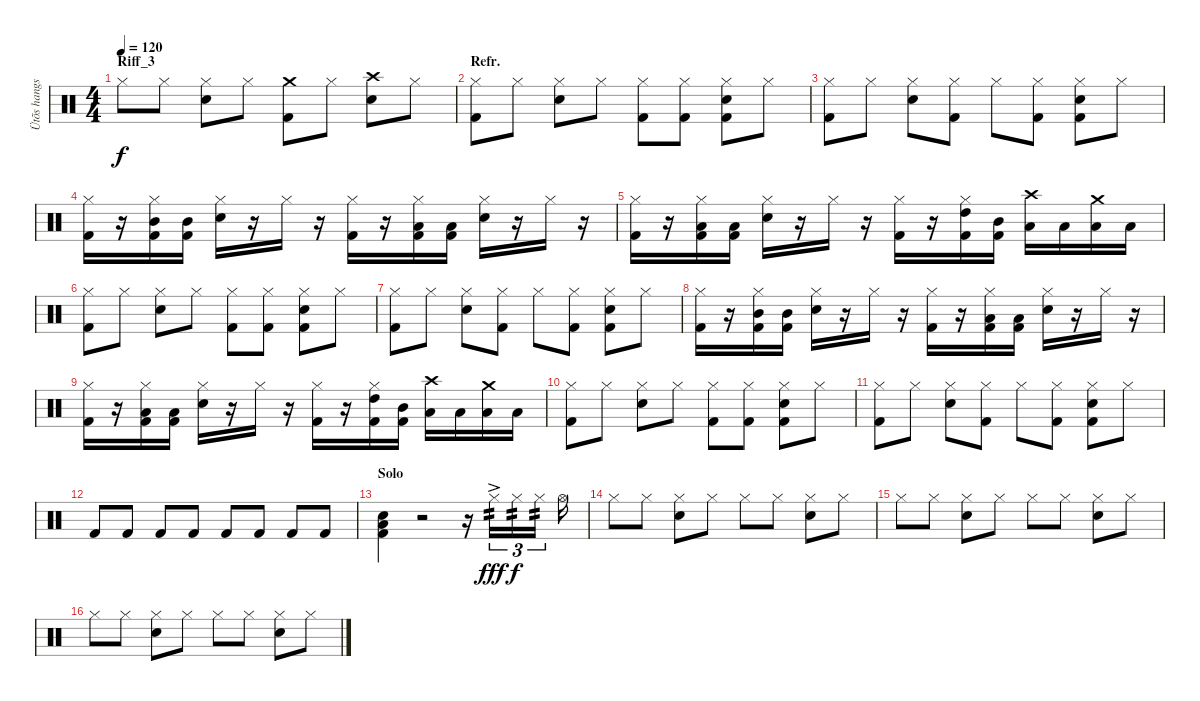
\track ("Ütõs hangszer" "Ütõs hangs") {instrument percussion}
\staff {score}
\articulation defaults
\ts (4 4)
\section ("" "Riff_3")
\tempo 120
\clef neutral
\ks c "Hi-Hat (closed)".8{dy f} "Hi-Hat (closed)".8
("Hi-Hat (closed)" "Snare (hit) 2").8 "Hi-Hat (closed)".8 ("Crash medium (hit)" "Kick (hit) 2").8 "Hi-Hat (closed)".8 ("Crash high (hit)" "Snare (hit) 2").8 "Hi-Hat (closed)".8 |
\section ("" "Refr.")
("Hi-Hat (closed)" "Kick (hit) 2").8 "Hi-Hat (closed)".8 ("Hi-Hat (closed)" "Snare (hit) 2").8 "Hi-Hat (closed)".8 ("Hi-Hat (closed)" "Kick (hit) 2").8 ("Hi-Hat (closed)" "Kick (hit) 2").8 ("Hi-Hat (closed)" "Snare (hit) 2" "Kick (hit) 2").8 "Hi-Hat (closed)".8 |
("Hi-Hat (closed)" "Kick (hit) 2").8 "Hi-Hat (closed)".8 ("Hi-Hat (closed)" "Snare (hit) 2").8 ("Hi-Hat (closed)" "Kick (hit) 2").8 "Hi-Hat (closed)".8 ("Hi-Hat (closed)" "Kick (hit) 2").8 ("Hi-Hat (closed)" "Snare (hit) 2" "Kick (hit) 2").8 "Hi-Hat (closed)".8 |
("Hi-Hat (closed)" "Kick (hit) 2").16 r.16 ("Hi-Hat (closed)" "Mid Tom (hit)" "Kick (hit) 2").16 ("Mid Tom (hit)" "Kick (hit) 2").16 ("Hi-Hat (closed)" "Snare (hit) 2").16 r.16 "Hi-Hat (closed)".16 r.16 ("Hi-Hat (closed)" "Kick (hit) 2").16 r.16 ("Hi-Hat (closed)" "Low Tom (hit)" "Kick (hit) 2").16 ("Low Tom (hit)" "Kick (hit) 2").16 ("Hi-Hat (closed)" "Snare (hit) 2").16 r.16 "Hi-Hat (closed)".16 r.16 |
("Hi-Hat (closed)" "Kick (hit) 2").16 r.16 ("Hi-Hat (closed)" "Low Floor Tom (hit)" "Kick (hit) 2").16 ("Low Floor Tom (hit)" "Kick (hit) 2").16 ("Hi-Hat (closed)" "Snare (hit) 2").16 r.16 "Hi-Hat (closed)".16 r.16 ("Hi-Hat (closed)" "Kick (hit) 2").16 r.16 ("Hi-Hat (closed)" "High Tom (hit)" "Kick (hit) 2").16 ("Mid Tom (hit)" "Kick (hit) 2").16 ("Crash high (hit)" "Low Tom (hit)").16 "Low Floor Tom (hit)".16 ("Crash medium (hit)" "Low Tom (hit)").16 "Low Tom (hit)".16 |
("Hi-Hat (closed)" "Kick (hit) 2").8 "Hi-Hat (closed)".8 ("Hi-Hat (closed)" "Snare (hit) 2").8 "Hi-Hat (closed)".8 ("Hi-Hat (closed)" "Kick (hit) 2").8 ("Hi-Hat (closed)" "Kick (hit) 2").8 ("Hi-Hat (closed)" "Snare (hit) 2" "Kick (hit) 2").8 "Hi-Hat (closed)".8 |
("Hi-Hat (closed)" "Kick (hit) 2").8 "Hi-Hat (closed)".8 ("Hi-Hat (closed)" "Snare (hit) 2").8 ("Hi-Hat (closed)" "Kick (hit) 2").8 "Hi-Hat (closed)".8 ("Hi-Hat (closed)" "Kick (hit) 2").8 ("Hi-Hat (closed)" "Snare (hit) 2" "Kick (hit) 2").8 "Hi-Hat (closed)".8 |
("Hi-Hat (closed)" "Kick (hit) 2").16 r.16 ("Hi-Hat (closed)" "Mid Tom (hit)" "Kick (hit) 2").16 ("Mid Tom (hit)" "Kick (hit) 2").16 ("Hi-Hat (closed)" "Snare (hit) 2").16 r.16 "Hi-Hat (closed)".16 r.16 ("Hi-Hat (closed)" "Kick (hit) 2").16 r.16 ("Hi-Hat (closed)" "Low Tom (hit)" "Kick (hit) 2").16 ("Low Tom (hit)" "Kick (hit) 2").16 ("Hi-Hat (closed)" "Snare (hit) 2").16 r.16 "Hi-Hat (closed)".16 r.16 |
("Hi-Hat (closed)" "Kick (hit) 2").16 r.16 ("Hi-Hat (closed)" "Low Floor Tom (hit)" "Kick (hit) 2").16 ("Low Floor Tom (hit)" "Kick (hit) 2").16 ("Hi-Hat (closed)" "Snare (hit) 2").16 r.16 "Hi-Hat (closed)".16 r.16 ("Hi-Hat (closed)" "Kick (hit) 2").16 r.16 ("Hi-Hat (closed)" "High Tom (hit)" "Kick (hit) 2").16 ("Mid Tom (hit)" "Kick (hit) 2").16 ("Crash high (hit)" "Low Tom (hit)").16 "Low Floor Tom (hit)".16 ("Crash medium (hit)" "Low Tom (hit)").16 "Low Tom (hit)".16 |
("Hi-Hat (closed)" "Kick (hit) 2").8 "Hi-Hat (closed)".8 ("Hi-Hat (closed)" "Snare (hit) 2").8 "Hi-Hat (closed)".8 ("Hi-Hat (closed)" "Kick (hit) 2").8 ("Hi-Hat (closed)" "Kick (hit) 2").8 ("Hi-Hat (closed)" "Snare (hit) 2" "Kick (hit) 2").8 "Hi-Hat (closed)".8 |
("Hi-Hat (closed)" "Kick (hit) 2").8 "Hi-Hat (closed)".8 ("Hi-Hat (closed)" "Snare (hit) 2").8 ("Hi-Hat (closed)" "Kick (hit) 2").8 "Hi-Hat (closed)".8 ("Hi-Hat (closed)" "Kick (hit) 2").8 ("Hi-Hat (closed)" "Snare (hit) 2" "Kick (hit) 2").8 "Hi-Hat (closed)".8 |
"Kick (hit) 2".8 "Kick (hit) 2".8 "Kick (hit) 2".8 "Kick (hit) 2".8 "Kick (hit) 2".8 "Kick (hit) 2".8 "Kick (hit) 2".8 "Kick (hit) 2".8 |
\section ("" "Solo")
("Low Floor Tom (hit)" "Snare (hit) 2" "Kick (hit) 2").4 r.2 r.16 "Hi-Hat (closed)"{ac}.16{tu (3 2) tp 2 dy fff} "Hi-Hat (closed)".16{tu (3 2) tp 2 dy f} "Hi-Hat (closed)".16{tu (3 2) tp 2} "Hi-Hat (open)".16 |
"Hi-Hat (closed)".8 "Hi-Hat (closed)".8 ("Hi-Hat (closed)" "Snare (hit) 2").8 "Hi-Hat (closed)".8 "Hi-Hat (closed)".8 "Hi-Hat (closed)".8 ("Hi-Hat (closed)" "Snare (hit) 2").8 "Hi-Hat (closed)".8 |
"Hi-Hat (closed)".8 "Hi-Hat (closed)".8 ("Hi-Hat (closed)" "Snare (hit) 2").8 "Hi-Hat (closed)".8 "Hi-Hat (closed)".8 "Hi-Hat (closed)".8 ("Hi-Hat (closed)" "Snare (hit) 2").8 "Hi-Hat (closed)".8 |
"Hi-Hat (closed)".8 "Hi-Hat (closed)".8 ("Hi-Hat (closed)" "Snare (hit) 2").8 "Hi-Hat (closed)".8 "Hi-Hat (closed)".8 "Hi-Hat (closed)".8 ("Hi-Hat (closed)" "Snare (hit) 2").8 "Hi-Hat (closed)".8
